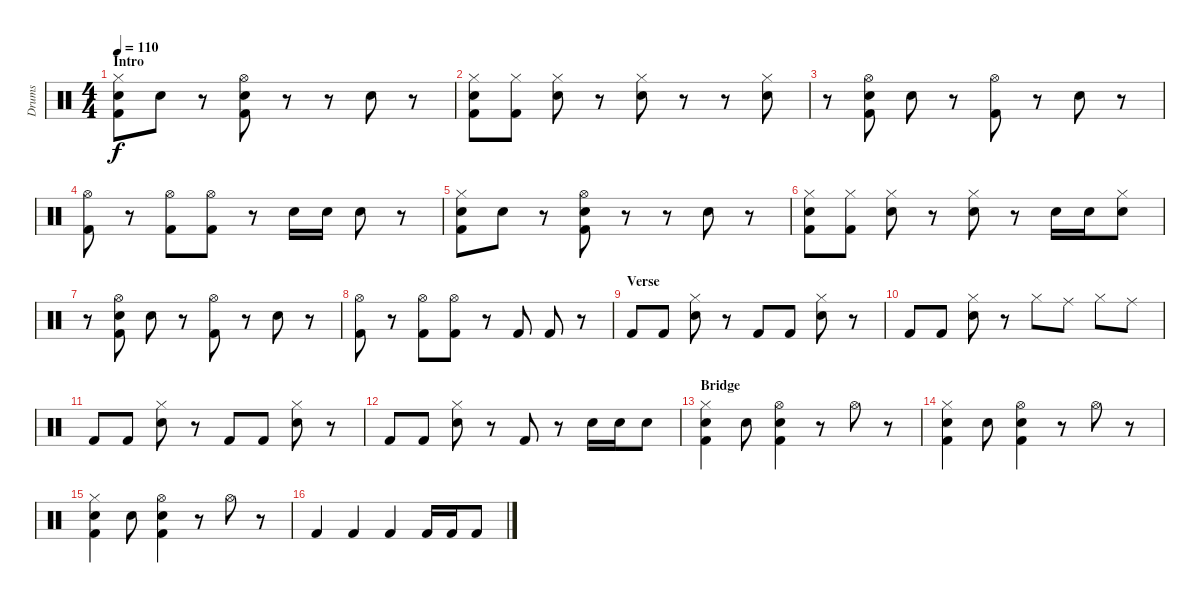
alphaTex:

\track ("Drums" "Drums") {instrument percussion}
\staff {score}
\articulation defaults
\ts (4 4)
\section ("" "Intro")
\tempo 110
\clef neutral
\ks c
("Hi-Hat (closed)" "Snare (hit) 2" "Kick (hit) 2").8{dy f} "Snare (hit) 2".8 r.8 ("Hi-Hat (open)" "Snare (hit) 2" "Kick (hit) 2").8 r.8 r.8 "Snare (hit) 2".8 r.8 |
("Hi-Hat (closed)" "Snare (hit) 2" "Kick (hit) 2").8 ("Hi-Hat (closed)" "Kick (hit) 2").8 ("Hi-Hat (closed)" "Snare (hit) 2").8 r.8 ("Hi-Hat (closed)" "Snare (hit) 2").8 r.8 r.8 ("Hi-Hat (closed)" "Snare (hit) 2").8 |
r.8 ("Hi-Hat (open)" "Snare (hit) 2" "Kick (hit) 2").8 "Snare (hit) 2".8 r.8 ("Hi-Hat (open)" "Kick (hit) 2").8 r.8 "Snare (hit) 2".8 r.8 |
("Hi-Hat (open)" "Kick (hit) 2").8 r.8 ("Hi-Hat (open)" "Kick (hit) 2").8 ("Hi-Hat (open)" "Kick (hit) 2").8 r.8 "Snare (hit) 2".16 "Snare (hit) 2".16 "Snare (hit) 2".8 r.8 |
("Hi-Hat (closed)" "Snare (hit) 2" "Kick (hit) 2").8 "Snare (hit) 2".8 r.8 ("Hi-Hat (open)" "Snare (hit) 2" "Kick (hit) 2").8 r.8 r.8 "Snare (hit) 2".8 r.8 |
("Hi-Hat (closed)" "Snare (hit) 2" "Kick (hit) 2").8 ("Hi-Hat (closed)" "Kick (hit) 2").8 ("Hi-Hat (closed)" "Snare (hit) 2").8 r.8 ("Hi-Hat (closed)" "Snare (hit) 2").8 r.8 "Snare (hit) 2".16 "Snare (hit) 2".16 ("Hi-Hat (closed)" "Snare (hit) 2").8 |
r.8 ("Hi-Hat (open)" "Snare (hit) 2" "Kick (hit) 2").8 "Snare (hit) 2".8 r.8 ("Hi-Hat (open)" "Kick (hit) 2").8 r.8 "Snare (hit) 2".8 r.8 |
("Hi-Hat (open)" "Kick (hit) 2").8 r.8 ("Hi-Hat (open)" "Kick (hit) 2").8 ("Hi-Hat (open)" "Kick (hit) 2").8 r.8 "Kick (hit) 2".8 "Kick (hit) 2".8 r.8 |
\section ("" "Verse")
"Kick (hit) 2".8 "Kick (hit) 2".8 ("Hi-Hat (closed)" "Snare (hit) 2").8 r.8 "Kick (hit) 2".8 "Kick (hit) 2".8 ("Hi-Hat (closed)" "Snare (hit) 2").8 r.8 |
"Kick (hit) 2".8 "Kick (hit) 2".8 ("Hi-Hat (closed)" "Snare (hit) 2").8 r.8 "Hi-Hat (closed)".8 "Ride (middle)".8 "Hi-Hat (closed)".8 "Ride (middle)".8 |
"Kick (hit) 2".8 "Kick (hit) 2".8 ("Hi-Hat (closed)" "Snare (hit) 2").8 r.8 "Kick (hit) 2".8 "Kick (hit) 2".8 ("Hi-Hat (closed)" "Snare (hit) 2").8 r.8 |
"Kick (hit) 2".8 "Kick (hit) 2".8 ("Hi-Hat (closed)" "Snare (hit) 2").8 r.8 "Kick (hit) 2".8 r.8 "Snare (hit) 2".16 "Snare (hit) 2".16 "Snare (hit) 2".8 |
\section ("" "Bridge")
("Hi-Hat (closed)" "Snare (hit) 2" "Kick (hit) 2").4 "Snare (hit) 2".8 ("Hi-Hat (open)" "Snare (hit) 2" "Kick (hit) 2").4 r.8 "Hi-Hat (open)".8 r.8 |
("Hi-Hat (closed)" "Snare (hit) 2" "Kick (hit) 2").4 "Snare (hit) 2".8 ("Hi-Hat (open)" "Snare (hit) 2" "Kick (hit) 2").4 r.8 "Hi-Hat (open)".8 r.8 |
("Hi-Hat (closed)" "Snare (hit) 2" "Kick (hit) 2").4 "Snare (hit) 2".8 ("Hi-Hat (open)" "Snare (hit) 2" "Kick (hit) 2").4 r.8 "Hi-Hat (open)".8 r.8 |
"Kick (hit) 2".4 "Kick (hit) 2".4 "Kick (hit) 2".4 "Kick (hit) 2".16 "Kick (hit) 2".16 "Kick (hit) 2".8
